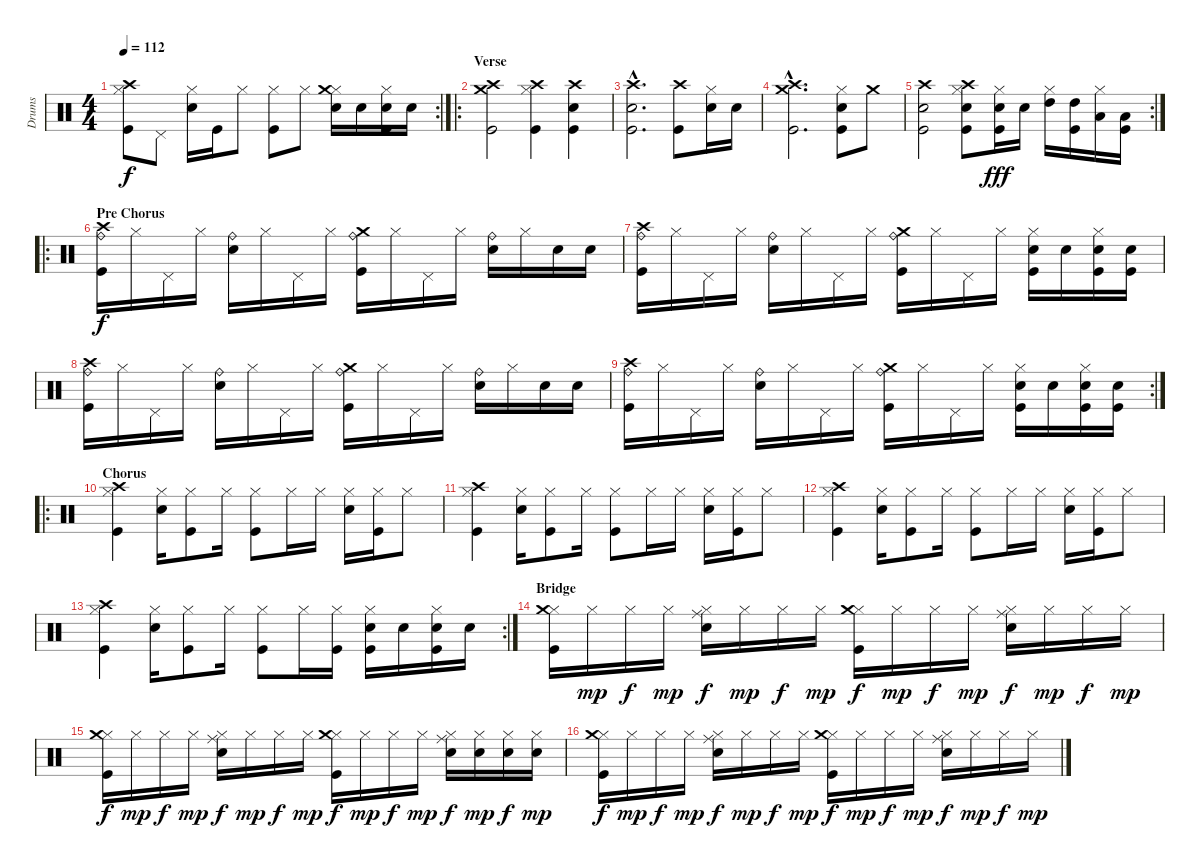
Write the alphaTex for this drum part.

\track ("Drums" "Drums") {instrument percussion}
\staff {score}
\articulation defaults
\rc 2
\ts (4 4)
\tempo 112
\clef neutral
\ks c
("Hi-Hat (closed)" "Crash high (hit)" "Kick (hit)").8{dy f} "Pedal Hi-Hat (hit)".8 ("Hi-Hat (closed)" "Electric Snare (hit)").16 "Kick (hit)".16 "Hi-Hat (closed)".8 ("Hi-Hat (closed)" "Kick (hit)").8 "Hi-Hat (closed)".8 ("Hi-Hat (closed)" "Electric Snare (hit)" "Crash medium (hit)").16 "Electric Snare (hit)".16 ("Hi-Hat (closed)" "Electric Snare (hit)" "Kick (hit)").16 "Electric Snare (hit)".16 |
\ro
\section ("" "Verse")
("Crash medium (hit)" "Crash high (hit)" "Kick (hit)").2 ("Hi-Hat (closed)" "Crash high (hit)" "Kick (hit)").4 ("Crash high (hit)" "Electric Snare (hit)" "Kick (hit)").4 |
("Crash high (hit)"{hac} "Electric Snare (hit)"{hac} "Kick (hit)"{hac}).2{d} ("Crash high (hit)" "Kick (hit)").8 ("Hi-Hat (closed)" "Electric Snare (hit)").16 "Electric Snare (hit)".16 |
("Crash medium (hit)"{hac} "Crash high (hit)"{hac} "Kick (hit)"{hac}).2{d} ("Hi-Hat (closed)" "Electric Snare (hit)" "Kick (hit)").8 "Crash medium (hit)".8 |
\rc 2
("Electric Snare (hit)" "Kick (hit)" "Crash high (hit)").2 ("Hi-Hat (closed)" "Crash high (hit)" "Electric Snare (hit)" "Kick (hit)").8 ("Hi-Hat (closed)" "Electric Snare (hit)" "Kick (hit)").16{dy fff} "Electric Snare (hit)".16 ("Hi-Hat (closed)" "High Tom (hit)").16 ("High Tom (hit)" "Kick (hit)").16 ("Hi-Hat (closed)" "Low Tom (hit)").16 ("Low Tom (hit)" "Kick (hit)").16 |
\ro
\section ("" "Pre Chorus")
("Ride (bell)" "Crash high (hit)" "Kick (hit)").16{dy f} "Hi-Hat (closed)".16 "Pedal Hi-Hat (hit)".16 "Hi-Hat (closed)".16 ("Ride (bell)" "Electric Snare (hit)").16 "Hi-Hat (closed)".16 "Pedal Hi-Hat (hit)".16 "Hi-Hat (closed)".16 ("Ride (bell)" "Crash medium (hit)" "Kick (hit)").16 "Hi-Hat (closed)".16 "Pedal Hi-Hat (hit)".16 "Hi-Hat (closed)".16 ("Ride (bell)" "Electric Snare (hit)").16 "Hi-Hat (closed)".16 "Electric Snare (hit)".16 "Electric Snare (hit)".16 |
("Ride (bell)" "Crash high (hit)" "Kick (hit)").16 "Hi-Hat (closed)".16 "Pedal Hi-Hat (hit)".16 "Hi-Hat (closed)".16 ("Ride (bell)" "Electric Snare (hit)").16 "Hi-Hat (closed)".16 "Pedal Hi-Hat (hit)".16 "Hi-Hat (closed)".16 ("Ride (bell)" "Crash medium (hit)" "Kick (hit)").16 "Hi-Hat (closed)".16 "Pedal Hi-Hat (hit)".16 "Hi-Hat (closed)".16 ("Hi-Hat (closed)" "Electric Snare (hit)" "Kick (hit)").16 "Electric Snare (hit)".16 ("Hi-Hat (closed)" "Electric Snare (hit)" "Kick (hit)").16 ("Electric Snare (hit)" "Kick (hit)").16 |
("Ride (bell)" "Crash high (hit)" "Kick (hit)").16 "Hi-Hat (closed)".16 "Pedal Hi-Hat (hit)".16 "Hi-Hat (closed)".16 ("Ride (bell)" "Electric Snare (hit)").16 "Hi-Hat (closed)".16 "Pedal Hi-Hat (hit)".16 "Hi-Hat (closed)".16 ("Ride (bell)" "Crash medium (hit)" "Kick (hit)").16 "Hi-Hat (closed)".16 "Pedal Hi-Hat (hit)".16 "Hi-Hat (closed)".16 ("Ride (bell)" "Electric Snare (hit)").16 "Hi-Hat (closed)".16 "Electric Snare (hit)".16 "Electric Snare (hit)".16 |
\rc 2
("Ride (bell)" "Crash high (hit)" "Kick (hit)").16 "Hi-Hat (closed)".16 "Pedal Hi-Hat (hit)".16 "Hi-Hat (closed)".16 ("Ride (bell)" "Electric Snare (hit)").16 "Hi-Hat (closed)".16 "Pedal Hi-Hat (hit)".16 "Hi-Hat (closed)".16 ("Ride (bell)" "Crash medium (hit)" "Kick (hit)").16 "Hi-Hat (closed)".16 "Pedal Hi-Hat (hit)".16 "Hi-Hat (closed)".16 ("Hi-Hat (closed)" "Electric Snare (hit)" "Kick (hit)").16 "Electric Snare (hit)".16 ("Hi-Hat (closed)" "Electric Snare (hit)" "Kick (hit)").16 ("Electric Snare (hit)" "Kick (hit)").16 |
\ro
\section ("" "Chorus")
("Hi-Hat (closed)" "Crash high (hit)" "Kick (hit)").4 ("Hi-Hat (closed)" "Electric Snare (hit)").16 ("Hi-Hat (closed)" "Kick (hit)").8 "Hi-Hat (closed)".16 ("Hi-Hat (closed)" "Kick (hit)").8 "Hi-Hat (closed)".16 "Hi-Hat (closed)".16 ("Hi-Hat (closed)" "Electric Snare (hit)").16 ("Hi-Hat (closed)" "Kick (hit)").16 "Hi-Hat (closed)".8 |
("Hi-Hat (closed)" "Crash high (hit)" "Kick (hit)").4 ("Hi-Hat (closed)" "Electric Snare (hit)").16 ("Hi-Hat (closed)" "Kick (hit)").8 "Hi-Hat (closed)".16 ("Hi-Hat (closed)" "Kick (hit)").8 "Hi-Hat (closed)".16 "Hi-Hat (closed)".16 ("Hi-Hat (closed)" "Electric Snare (hit)").16 ("Hi-Hat (closed)" "Kick (hit)").16 "Hi-Hat (closed)".8 |
("Hi-Hat (closed)" "Crash high (hit)" "Kick (hit)").4 ("Hi-Hat (closed)" "Electric Snare (hit)").16 ("Hi-Hat (closed)" "Kick (hit)").8 "Hi-Hat (closed)".16 ("Hi-Hat (closed)" "Kick (hit)").8 "Hi-Hat (closed)".16 "Hi-Hat (closed)".16 ("Hi-Hat (closed)" "Electric Snare (hit)").16 ("Hi-Hat (closed)" "Kick (hit)").16 "Hi-Hat (closed)".8 |
\rc 2
("Hi-Hat (closed)" "Crash high (hit)" "Kick (hit)").4 ("Hi-Hat (closed)" "Electric Snare (hit)").16 ("Hi-Hat (closed)" "Kick (hit)").8 "Hi-Hat (closed)".16 ("Hi-Hat (closed)" "Kick (hit)").8 "Hi-Hat (closed)".16 ("Hi-Hat (closed)" "Kick (hit)").16 ("Hi-Hat (closed)" "Electric Snare (hit)" "Kick (hit)").16 "Electric Snare (hit)".16 ("Hi-Hat (closed)" "Electric Snare (hit)" "Kick (hit)").16 "Electric Snare (hit)".16 |
\section ("" "Bridge")
("Hi-Hat (closed)" "Crash medium (hit)" "Kick (hit)").16 "Hi-Hat (closed)".16{dy mp} "Hi-Hat (closed)".16{dy f} "Hi-Hat (closed)".16{dy mp} ("Hi-Hat (closed)" "Electric Snare (hit)" "Ride (middle)").16{dy f} "Hi-Hat (closed)".16{dy mp} "Hi-Hat (closed)".16{dy f} "Hi-Hat (closed)".16{dy mp} ("Hi-Hat (closed)" "Crash medium (hit)" "Kick (hit)").16{dy f} "Hi-Hat (closed)".16{dy mp} "Hi-Hat (closed)".16{dy f} "Hi-Hat (closed)".16{dy mp} ("Hi-Hat (closed)" "Electric Snare (hit)" "Ride (middle)").16{dy f} "Hi-Hat (closed)".16{dy mp} "Hi-Hat (closed)".16{dy f} "Hi-Hat (closed)".16{dy mp} |
("Hi-Hat (closed)" "Crash medium (hit)" "Kick (hit)").16{dy f} "Hi-Hat (closed)".16{dy mp} "Hi-Hat (closed)".16{dy f} "Hi-Hat (closed)".16{dy mp} ("Hi-Hat (closed)" "Electric Snare (hit)" "Ride (middle)").16{dy f} "Hi-Hat (closed)".16{dy mp} "Hi-Hat (closed)".16{dy f} "Hi-Hat (closed)".16{dy mp} ("Hi-Hat (closed)" "Crash medium (hit)" "Kick (hit)").16{dy f} "Hi-Hat (closed)".16{dy mp} "Hi-Hat (closed)".16{dy f} "Hi-Hat (closed)".16{dy mp} ("Hi-Hat (closed)" "Electric Snare (hit)" "Ride (middle)").16{dy f} ("Hi-Hat (closed)" "Electric Snare (hit)").16{dy mp} ("Hi-Hat (closed)" "Electric Snare (hit)").16{dy f} ("Hi-Hat (closed)" "Electric Snare (hit)").16{dy mp} |
("Hi-Hat (closed)" "Crash medium (hit)" "Kick (hit)").16{dy f} "Hi-Hat (closed)".16{dy mp} "Hi-Hat (closed)".16{dy f} "Hi-Hat (closed)".16{dy mp} ("Hi-Hat (closed)" "Electric Snare (hit)" "Ride (middle)").16{dy f} "Hi-Hat (closed)".16{dy mp} "Hi-Hat (closed)".16{dy f} "Hi-Hat (closed)".16{dy mp} ("Hi-Hat (closed)" "Crash medium (hit)" "Kick (hit)").16{dy f} "Hi-Hat (closed)".16{dy mp} "Hi-Hat (closed)".16{dy f} "Hi-Hat (closed)".16{dy mp} ("Hi-Hat (closed)" "Electric Snare (hit)" "Ride (middle)").16{dy f} "Hi-Hat (closed)".16{dy mp} "Hi-Hat (closed)".16{dy f} "Hi-Hat (closed)".16{dy mp}
